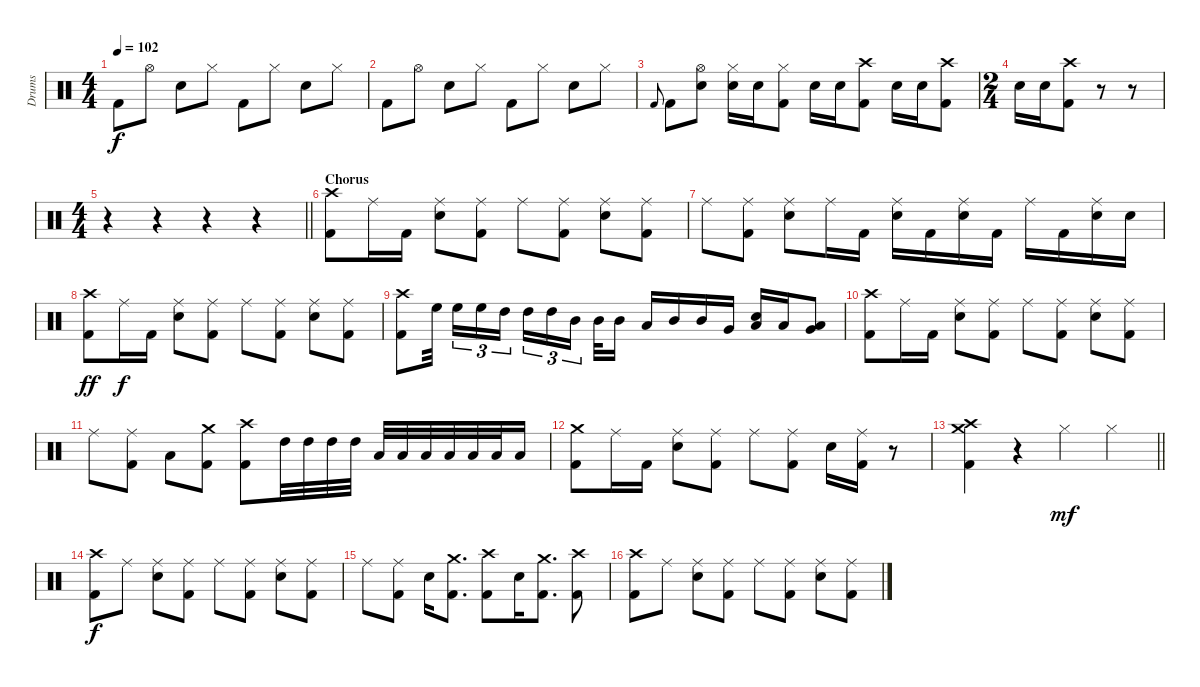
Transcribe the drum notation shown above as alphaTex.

\track ("Drums" "Drums") {instrument percussion}
\staff {score}
\articulation defaults
\ts (4 4)
\tempo 102
\clef neutral
\ks c "Kick (hit) 2".8{dy f} "Hi-Hat (open)".8 "Snare (hit) 2".8 "Hi-Hat (closed)".8 "Kick (hit) 2".8 "Hi-Hat (closed)".8 "Snare (hit) 2".8 "Hi-Hat (closed)".8
|
"Kick (hit) 2".8 "Hi-Hat (open)".8 "Snare (hit) 2".8 "Hi-Hat (closed)".8 "Kick (hit) 2".8 "Hi-Hat (closed)".8 "Snare (hit) 2".8 "Hi-Hat (closed)".8 |
"Kick (hit) 2".8{gr onbeat} "Kick (hit) 2".8 ("Hi-Hat (open)" "Snare (hit) 2").8 ("Hi-Hat (closed)" "Snare (hit) 2").16 "Snare (hit) 2".16 ("Hi-Hat (closed)" "Kick (hit) 2").8 "Snare (hit) 2".16 "Snare (hit) 2".16 ("Crash high (hit)" "Kick (hit) 2").8 "Snare (hit) 2".16 "Snare (hit) 2".16 ("Crash high (hit)" "Kick (hit) 2").8 |
\ts (2 4)
"Snare (hit) 2".16 "Snare (hit) 2".16 ("Crash high (hit)" "Kick (hit) 2").8 r.8 r.8 |
\ts (4 4)
\barLineRight lightlight
r.4 r.4 r.4 r.4 |
\section ("" "Chorus")
("Crash high (hit)" "Kick (hit) 2").8 "Ride (middle)".16 "Kick (hit) 2".16 ("Ride (middle)" "Snare (hit) 2").8 ("Ride (middle)" "Kick (hit) 2").8 "Ride (middle)".8 ("Ride (middle)" "Kick (hit) 2").8 ("Ride (middle)" "Snare (hit) 2").8 ("Ride (middle)" "Kick (hit) 2").8 |
"Ride (middle)".8 ("Ride (middle)" "Kick (hit) 2").8 ("Ride (middle)" "Snare (hit) 2").8 "Ride (middle)".16 "Kick (hit) 2".16 ("Ride (middle)" "Snare (hit) 2").16 "Kick (hit) 2".16 ("Ride (middle)" "Snare (hit) 2").16 "Kick (hit) 2".16 "Ride (middle)".16 "Kick (hit) 2".16 ("Ride (middle)" "Snare (hit) 2").16 "Snare (hit) 2".16 |
("Crash high (hit)" "Kick (hit) 2").8{dy ff} "Ride (middle)".16{dy f} "Kick (hit) 2".16 ("Ride (middle)" "Snare (hit) 2").8 ("Ride (middle)" "Kick (hit) 2").8 "Ride (middle)".8 ("Ride (middle)" "Kick (hit) 2").8 ("Ride (middle)" "Snare (hit) 2").8 ("Ride (middle)" "Kick (hit) 2").8 |
("Crash high (hit)" "Kick (hit) 2").8 "High Floor Tom (hit)".32{beam splitsecondary} "High Floor Tom (hit)".16{tu (3 2)} "High Floor Tom (hit)".16{tu (3 2)} "High Tom (hit)".16{tu (3 2)} "High Tom (hit)".16{tu (3 2)} "High Tom (hit)".16{tu (3 2)} "Mid Tom (hit)".16{tu (3 2) beam splitsecondary} "Mid Tom (hit)".32 "Mid Tom (hit)".16 "Low Tom (hit)".16 "Mid Tom (hit)".16 "Mid Tom (hit)".16 "Very Low Tom (hit)".16 ("Snare (hit) 2" "Low Tom (hit)").16 "Low Tom (hit)".16 ("Very Low Tom (hit)" "Low Floor Tom (hit)").8 |
("Crash high (hit)" "Kick (hit) 2").8 "Ride (middle)".16 "Kick (hit) 2".16 ("Ride (middle)" "Snare (hit) 2").8 ("Ride (middle)" "Kick (hit) 2").8 "Ride (middle)".8 ("Ride (middle)" "Kick (hit) 2").8 ("Ride (middle)" "Snare (hit) 2").8 ("Ride (middle)" "Kick (hit) 2").8 |
"Ride (middle)".8 ("Ride (middle)" "Kick (hit) 2").8 "Low Tom (hit)".8 ("Crash medium (hit)" "Kick (hit) 2").8 ("Crash high (hit)" "Kick (hit) 2").8 "High Tom (hit)".32 "High Tom (hit)".32 "High Tom (hit)".32 "High Tom (hit)".32 "Low Tom (hit)".32 "Low Tom (hit)".32 "Low Tom (hit)".32 "Low Tom (hit)".32 "Low Floor Tom (hit)".32 "Low Floor Tom (hit)".32 "Low Floor Tom (hit)".16 |
("Crash medium (hit)" "Kick (hit) 2").8 "Ride (middle)".16 "Kick (hit) 2".16 ("Ride (middle)" "Snare (hit) 2").8 ("Ride (middle)" "Kick (hit) 2").8 "Ride (middle)".8 ("Ride (middle)" "Kick (hit) 2").8 "Snare (hit) 2".16 ("Ride (middle)" "Kick (hit) 2").16 r.8 |
\barLineRight lightlight
("Crash medium (hit)" "Crash high (hit)" "Kick (hit) 2").4 r.4 "Hi-Hat (closed)".4{dy mf} "Hi-Hat (closed)".4 |
("Crash high (hit)" "Kick (hit) 2").8{dy f} "Ride (middle)".8 ("Ride (middle)" "Snare (hit) 2").8 ("Ride (middle)" "Kick (hit) 2").8 "Ride (middle)".8 ("Ride (middle)" "Kick (hit) 2").8 ("Ride (middle)" "Snare (hit) 2").8 ("Ride (middle)" "Kick (hit) 2").8 |
"Ride (middle)".8 ("Ride (middle)" "Kick (hit) 2").8 "Snare (hit) 2".16 ("Crash medium (hit)" "Kick (hit) 2").8{d} ("Crash high (hit)" "Kick (hit) 2").8 "Snare (hit) 2".16 ("Crash medium (hit)" "Kick (hit) 2").8{d} ("Crash high (hit)" "Kick (hit) 2").8 |
("Crash high (hit)" "Kick (hit) 2").8 "Ride (middle)".8 ("Ride (middle)" "Snare (hit) 2").8 ("Ride (middle)" "Kick (hit) 2").8 "Ride (middle)".8 ("Ride (middle)" "Kick (hit) 2").8 ("Ride (middle)" "Snare (hit) 2").8 ("Ride (middle)" "Kick (hit) 2").8
